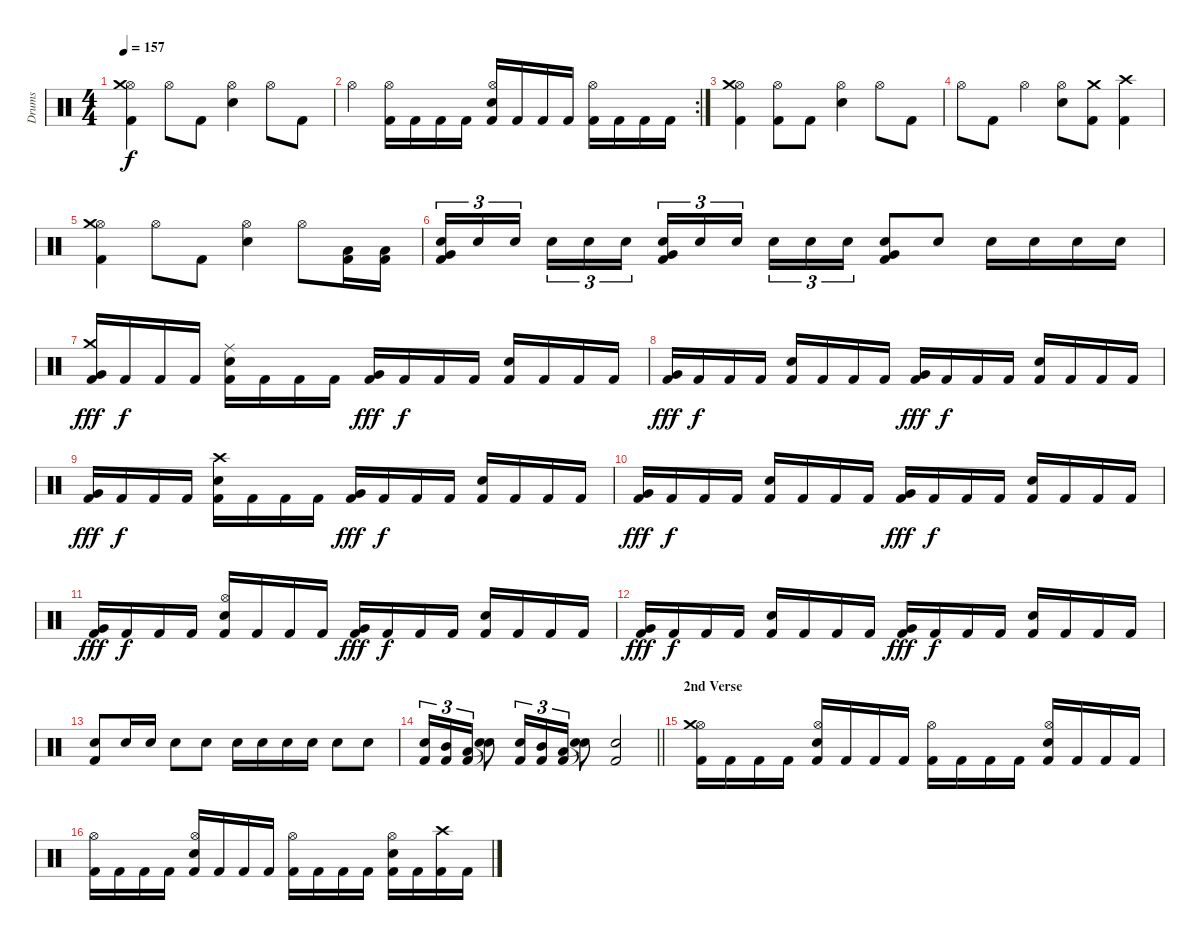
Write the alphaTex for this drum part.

\track ("Drums" "Drums") {instrument percussion}
\staff {score}
\articulation defaults
\ts (4 4)
\tempo 157
\clef neutral
\ks c
("Kick (hit) 2" "Hi-Hat (open)" "Crash medium (hit)").4{dy f} "Hi-Hat (open)".8 "Kick (hit) 2".8 ("Electric Snare (hit)" "Hi-Hat (open)").4 "Hi-Hat (open)".8 "Kick (hit) 2".8 |
\rc 2 "Hi-Hat (open)".4
("Kick (hit) 2" "Hi-Hat (open)").16 "Kick (hit) 2".16 "Kick (hit) 2".16 "Kick (hit) 2".16 ("Kick (hit) 2" "Electric Snare (hit)" "Hi-Hat (open)").16 "Kick (hit) 2".16 "Kick (hit) 2".16 "Kick (hit) 2".16 ("Kick (hit) 2" "Hi-Hat (open)").16 "Kick (hit) 2".16 "Kick (hit) 2".16 "Kick (hit) 2".16 |
("Kick (hit) 2" "Hi-Hat (open)" "Crash medium (hit)").4 ("Kick (hit) 2" "Hi-Hat (open)").8 "Kick (hit) 2".8 ("Electric Snare (hit)" "Hi-Hat (open)").4 "Hi-Hat (open)".8 "Kick (hit) 2".8 |
"Hi-Hat (open)".8 "Kick (hit) 2".8 "Hi-Hat (open)".4 ("Electric Snare (hit)" "Hi-Hat (open)").8 ("Kick (hit) 2" "Crash medium (hit)").8 ("Kick (hit) 2" "Crash high (hit)").4 |
("Kick (hit) 2" "Hi-Hat (open)" "Crash medium (hit)").4 "Hi-Hat (open)".8 "Kick (hit) 2".8 ("Electric Snare (hit)" "Hi-Hat (open)").4 "Hi-Hat (open)".8 ("Kick (hit) 2" "Low Tom (hit)").16 ("Kick (hit) 2" "Low Tom (hit)").16 |
("Kick (hit) 2" "Electric Snare (hit)" "Very Low Tom (hit)").16{tu (3 2)} "Electric Snare (hit)".16{tu (3 2)} "Electric Snare (hit)".16{tu (3 2) beam splitsecondary} "Electric Snare (hit)".16{tu (3 2)} "Electric Snare (hit)".16{tu (3 2)} "Electric Snare (hit)".16{tu (3 2)} ("Kick (hit) 2" "Electric Snare (hit)" "Very Low Tom (hit)").16{tu (3 2)} "Electric Snare (hit)".16{tu (3 2)} "Electric Snare (hit)".16{tu (3 2) beam splitsecondary} "Electric Snare (hit)".16{tu (3 2)} "Electric Snare (hit)".16{tu (3 2)} "Electric Snare (hit)".16{tu (3 2)} ("Kick (hit) 2" "Electric Snare (hit)" "Very Low Tom (hit)").8 "Electric Snare (hit)".8 "Electric Snare (hit)".16 "Electric Snare (hit)".16 "Electric Snare (hit)".16 "Electric Snare (hit)".16 |
("Kick (hit) 2" "Very Low Tom (hit)" "Crash medium (hit)").16{dy fff} "Kick (hit) 2".16{dy f} "Kick (hit) 2".16 "Kick (hit) 2".16 ("Kick (hit) 2" "Electric Snare (hit)" "Ride (middle)").16 "Kick (hit) 2".16 "Kick (hit) 2".16 "Kick (hit) 2".16 ("Kick (hit) 2" "Very Low Tom (hit)").16{dy fff} "Kick (hit) 2".16{dy f} "Kick (hit) 2".16 "Kick (hit) 2".16 ("Kick (hit) 2" "Electric Snare (hit)").16 "Kick (hit) 2".16 "Kick (hit) 2".16 "Kick (hit) 2".16 |
("Kick (hit) 2" "Very Low Tom (hit)").16{dy fff} "Kick (hit) 2".16{dy f} "Kick (hit) 2".16 "Kick (hit) 2".16 ("Kick (hit) 2" "Electric Snare (hit)").16 "Kick (hit) 2".16 "Kick (hit) 2".16 "Kick (hit) 2".16 ("Kick (hit) 2" "Very Low Tom (hit)").16{dy fff} "Kick (hit) 2".16{dy f} "Kick (hit) 2".16 "Kick (hit) 2".16 ("Kick (hit) 2" "Electric Snare (hit)").16 "Kick (hit) 2".16 "Kick (hit) 2".16 "Kick (hit) 2".16 |
("Kick (hit) 2" "Very Low Tom (hit)").16{dy fff} "Kick (hit) 2".16{dy f} "Kick (hit) 2".16 "Kick (hit) 2".16 ("Kick (hit) 2" "Electric Snare (hit)" "Crash high (hit)").16 "Kick (hit) 2".16 "Kick (hit) 2".16 "Kick (hit) 2".16 ("Kick (hit) 2" "Very Low Tom (hit)").16{dy fff} "Kick (hit) 2".16{dy f} "Kick (hit) 2".16 "Kick (hit) 2".16 ("Kick (hit) 2" "Electric Snare (hit)").16 "Kick (hit) 2".16 "Kick (hit) 2".16 "Kick (hit) 2".16 |
("Kick (hit) 2" "Very Low Tom (hit)").16{dy fff} "Kick (hit) 2".16{dy f} "Kick (hit) 2".16 "Kick (hit) 2".16 ("Kick (hit) 2" "Electric Snare (hit)").16 "Kick (hit) 2".16 "Kick (hit) 2".16 "Kick (hit) 2".16 ("Kick (hit) 2" "Very Low Tom (hit)").16{dy fff} "Kick (hit) 2".16{dy f} "Kick (hit) 2".16 "Kick (hit) 2".16 ("Kick (hit) 2" "Electric Snare (hit)").16 "Kick (hit) 2".16 "Kick (hit) 2".16 "Kick (hit) 2".16 |
("Kick (hit) 2" "Very Low Tom (hit)").16{dy fff} "Kick (hit) 2".16{dy f} "Kick (hit) 2".16 "Kick (hit) 2".16 ("Kick (hit) 2" "Electric Snare (hit)" "Hi-Hat (open)").16 "Kick (hit) 2".16 "Kick (hit) 2".16 "Kick (hit) 2".16 ("Kick (hit) 2" "Very Low Tom (hit)").16{dy fff} "Kick (hit) 2".16{dy f} "Kick (hit) 2".16 "Kick (hit) 2".16 ("Kick (hit) 2" "Electric Snare (hit)").16 "Kick (hit) 2".16 "Kick (hit) 2".16 "Kick (hit) 2".16 |
("Kick (hit) 2" "Very Low Tom (hit)").16{dy fff} "Kick (hit) 2".16{dy f} "Kick (hit) 2".16 "Kick (hit) 2".16 ("Kick (hit) 2" "Electric Snare (hit)").16 "Kick (hit) 2".16 "Kick (hit) 2".16 "Kick (hit) 2".16 ("Kick (hit) 2" "Very Low Tom (hit)").16{dy fff} "Kick (hit) 2".16{dy f} "Kick (hit) 2".16 "Kick (hit) 2".16 ("Kick (hit) 2" "Electric Snare (hit)").16 "Kick (hit) 2".16 "Kick (hit) 2".16 "Kick (hit) 2".16 |
("Kick (hit) 2" "Electric Snare (hit)").8 "Electric Snare (hit)".16 "Electric Snare (hit)".16 "Electric Snare (hit)".8 "Electric Snare (hit)".8 "Electric Snare (hit)".16 "Electric Snare (hit)".16 "Electric Snare (hit)".16 "Electric Snare (hit)".16 "Electric Snare (hit)".8 "Electric Snare (hit)".8 |
\barLineRight lightlight
("Kick (hit) 2" "Electric Snare (hit)").16{tu (3 2)} ("Kick (hit) 2" "Mid Tom (hit)").16{tu (3 2)} ("Kick (hit) 2" "Low Tom (hit)").16{tu (3 2)} ("Snare (hit)"{t} "Snare (hit)"{t}).8 ("Kick (hit) 2" "Electric Snare (hit)").16{tu (3 2)} ("Kick (hit) 2" "Mid Tom (hit)").16{tu (3 2)} ("Kick (hit) 2" "Low Tom (hit)").16{tu (3 2)} ("Snare (hit)"{t} "Snare (hit)"{t}).8 ("Kick (hit) 2" "Electric Snare (hit)").2 |
\section ("" "2nd Verse")
("Kick (hit) 2" "Hi-Hat (open)" "Crash medium (hit)").16 "Kick (hit) 2".16 "Kick (hit) 2".16 "Kick (hit) 2".16 ("Kick (hit) 2" "Electric Snare (hit)" "Hi-Hat (open)").16 "Kick (hit) 2".16 "Kick (hit) 2".16 "Kick (hit) 2".16 ("Kick (hit) 2" "Hi-Hat (open)").16 "Kick (hit) 2".16 "Kick (hit) 2".16 "Kick (hit) 2".16 ("Kick (hit) 2" "Electric Snare (hit)" "Hi-Hat (open)").16 "Kick (hit) 2".16 "Kick (hit) 2".16 "Kick (hit) 2".16 |
("Kick (hit) 2" "Hi-Hat (open)").16 "Kick (hit) 2".16 "Kick (hit) 2".16 "Kick (hit) 2".16 ("Kick (hit) 2" "Electric Snare (hit)" "Hi-Hat (open)").16 "Kick (hit) 2".16 "Kick (hit) 2".16 "Kick (hit) 2".16 ("Kick (hit) 2" "Hi-Hat (open)").16 "Kick (hit) 2".16 "Kick (hit) 2".16 "Kick (hit) 2".16 ("Kick (hit) 2" "Electric Snare (hit)" "Hi-Hat (open)").16 "Kick (hit) 2".16 ("Kick (hit) 2" "Crash high (hit)").16 "Kick (hit) 2".16
